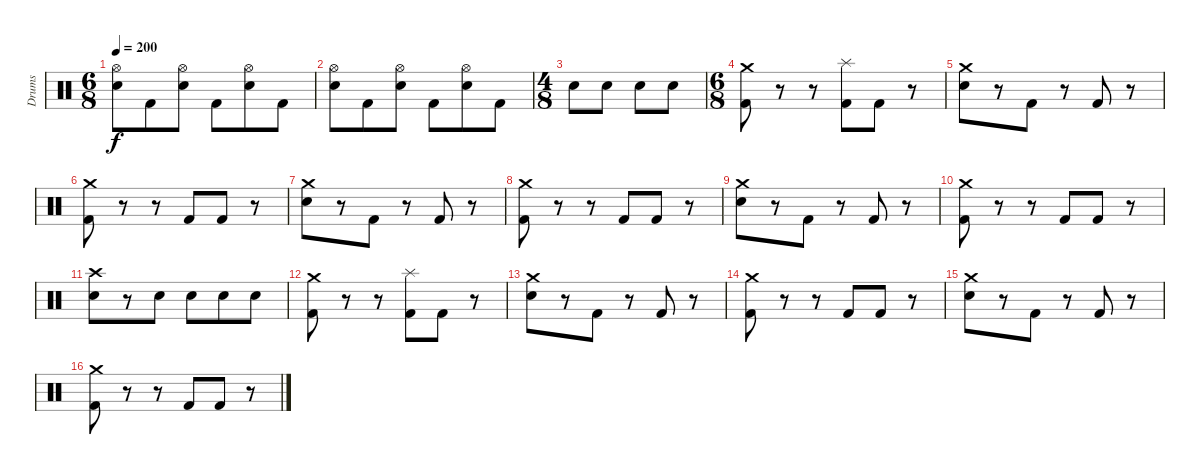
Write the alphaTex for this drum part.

\track ("Drums" "Drums") {instrument percussion}
\staff {score}
\articulation defaults
\ts (6 8)
\tempo 200
\clef neutral
\ks c
("Hi-Hat (open)" "Electric Snare (hit)").8{dy f} "Kick (hit) 2".8 ("Hi-Hat (open)" "Electric Snare (hit)").8 "Kick (hit) 2".8 ("Hi-Hat (open)" "Electric Snare (hit)").8 "Kick (hit) 2".8 |
("Hi-Hat (open)" "Electric Snare (hit)").8 "Kick (hit) 2".8 ("Hi-Hat (open)" "Electric Snare (hit)").8 "Kick (hit) 2".8 ("Hi-Hat (open)" "Electric Snare (hit)").8 "Kick (hit) 2".8 |
\ts (4 8)
"Electric Snare (hit)".8 "Electric Snare (hit)".8 "Electric Snare (hit)".8 "Electric Snare (hit)".8 |
\ts (6 8)
("Crash medium (hit)" "Kick (hit) 2").8 r.8 r.8 ("Splash (hit)" "Kick (hit) 2").8 "Kick (hit) 2".8 r.8 |
("Crash medium (hit)" "Electric Snare (hit)").8 r.8 "Kick (hit) 2".8 r.8 "Kick (hit) 2".8 r.8 |
("Crash medium (hit)" "Kick (hit) 2").8 r.8 r.8 "Kick (hit) 2".8 "Kick (hit) 2".8 r.8 |
("Crash medium (hit)" "Electric Snare (hit)").8 r.8 "Kick (hit) 2".8 r.8 "Kick (hit) 2".8 r.8 |
("Crash medium (hit)" "Kick (hit) 2").8 r.8 r.8 "Kick (hit) 2".8 "Kick (hit) 2".8 r.8 |
("Crash medium (hit)" "Electric Snare (hit)").8 r.8 "Kick (hit) 2".8 r.8 "Kick (hit) 2".8 r.8 |
("Crash medium (hit)" "Kick (hit) 2").8 r.8 r.8 "Kick (hit) 2".8 "Kick (hit) 2".8 r.8 |
("Crash high (hit)" "Electric Snare (hit)").8 r.8 "Electric Snare (hit)".8 "Electric Snare (hit)".8 "Electric Snare (hit)".8 "Electric Snare (hit)".8 |
("Crash medium (hit)" "Kick (hit) 2").8 r.8 r.8 ("Splash (hit)" "Kick (hit) 2").8 "Kick (hit) 2".8 r.8 |
("Crash medium (hit)" "Electric Snare (hit)").8 r.8 "Kick (hit) 2".8 r.8 "Kick (hit) 2".8 r.8 |
("Crash medium (hit)" "Kick (hit) 2").8 r.8 r.8 "Kick (hit) 2".8 "Kick (hit) 2".8 r.8 |
("Crash medium (hit)" "Electric Snare (hit)").8 r.8 "Kick (hit) 2".8 r.8 "Kick (hit) 2".8 r.8 |
("Crash medium (hit)" "Kick (hit) 2").8 r.8 r.8 "Kick (hit) 2".8 "Kick (hit) 2".8 r.8
